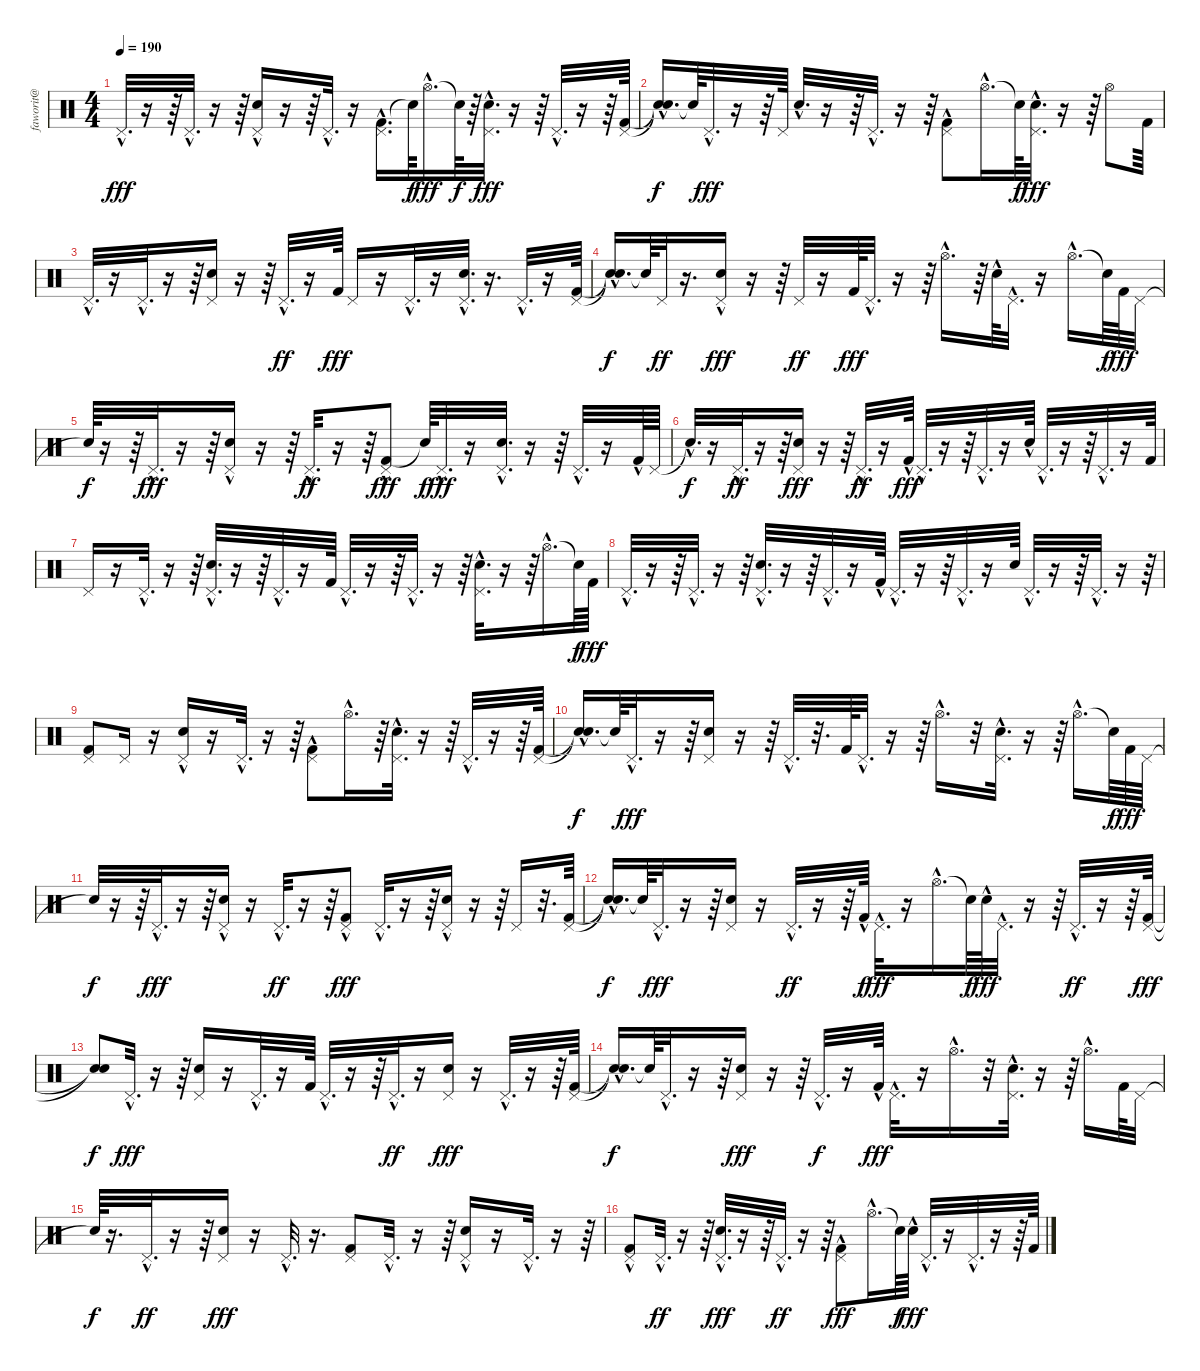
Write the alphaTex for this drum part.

\track ("faworit@" "faworit@") {instrument percussion}
\staff {score}
\articulation defaults
\ts (4 4)
\tempo 190
\clef neutral
\ks c "Pedal Hi-Hat (hit)"{hac}.32{d dy fff}
r.16 r.64 "Pedal Hi-Hat (hit)"{hac}.32{d} r.16 r.64 ("Snare (hit) 2"{hac} "Pedal Hi-Hat (hit)").16 r.16 r.64 "Pedal Hi-Hat (hit)"{hac}.32{d} r.16 ("Kick (hit) 2"{hac} "Pedal Hi-Hat (hit)"{hac}).16{d} "Snare (hit)"{t}.64{dy f} "Hi-Hat (open)"{hac}.16{d dy fff} "Snare (hit)"{t}.64{dy f} r.64 ("Pedal Hi-Hat (hit)"{hac} "Snare (hit) 2"{hac}).32{d dy fff} r.16 r.64 "Pedal Hi-Hat (hit)"{hac}.32{d} r.16 r.64 ("Pedal Hi-Hat (hit)" "Kick (hit) 2").64 |
("Snare (hit)"{t} "Snare (hit)"{hac t}).16{d dy f} "Snare (hit)"{t}.64 "Pedal Hi-Hat (hit)"{hac}.32{d dy fff} r.16 r.64 "Pedal Hi-Hat (hit)".64 "Snare (hit) 2"{hac}.32{d} r.16 r.64 "Pedal Hi-Hat (hit)"{hac}.32{d} r.16 r.64 ("Kick (hit) 2"{hac} "Pedal Hi-Hat (hit)"{hac}).8 "Hi-Hat (open)"{hac}.16{d} "Snare (hit)"{t}.64{dy f} ("Snare (hit) 2"{hac} "Pedal Hi-Hat (hit)"{hac}).32{d dy fff} r.16 r.64 "Hi-Hat (open)".8 "Kick (hit) 2".64 |
"Pedal Hi-Hat (hit)"{hac}.32{d} r.16 "Pedal Hi-Hat (hit)"{hac}.32{d} r.16 r.64 ("Pedal Hi-Hat (hit)" "Snare (hit) 2").16 r.16 r.64 "Pedal Hi-Hat (hit)"{hac}.32{d dy ff} r.16 "Kick (hit) 2".64{dy fff} "Pedal Hi-Hat (hit)".16 r.16 "Pedal Hi-Hat (hit)"{hac}.32{d} r.16 ("Snare (hit) 2"{hac} "Pedal Hi-Hat (hit)"{hac}).32{d} r.16{d} "Pedal Hi-Hat (hit)"{hac}.32{d} r.16 ("Pedal Hi-Hat (hit)" "Kick (hit) 2").64 |
("Snare (hit)"{t} "Snare (hit)"{hac t}).16{d dy f} "Snare (hit)"{t}.64 "Pedal Hi-Hat (hit)".32{dy ff} r.16{d} ("Snare (hit) 2"{hac} "Pedal Hi-Hat (hit)").16{dy fff} r.16 r.64 "Pedal Hi-Hat (hit)".32{dy ff} r.16 "Kick (hit) 2".64{dy fff} "Pedal Hi-Hat (hit)"{hac}.32{d} r.16 r.64 "Hi-Hat (open)"{hac}.16{d} r.64 "Snare (hit) 2"{hac}.64 "Pedal Hi-Hat (hit)"{hac}.32{d} r.16 "Hi-Hat (open)"{hac}.16{d} "Snare (hit)"{t}.64{dy f} "Kick (hit) 2".64{dy fff} "Pedal Hi-Hat (hit)".32 |
"Snare (hit)"{t}.64{dy f} r.16 r.64 "Pedal Hi-Hat (hit)"{hac}.32{d dy fff} r.16 r.64 ("Pedal Hi-Hat (hit)"{hac} "Snare (hit) 2").16 r.16 r.64 "Pedal Hi-Hat (hit)"{hac}.32{d dy ff} r.16 r.64 ("Kick (hit) 2" "Pedal Hi-Hat (hit)"{hac}).8{dy fff} "Snare (hit)"{t}.64{dy f} "Pedal Hi-Hat (hit)"{hac}.32{d dy fff} r.16 ("Snare (hit) 2"{hac} "Pedal Hi-Hat (hit)"{hac}).32{d} r.16 r.64 "Pedal Hi-Hat (hit)"{hac}.32{d} r.16 "Kick (hit) 2"{hac}.64 "Pedal Hi-Hat (hit)".64 |
"Snare (hit)"{hac t}.32{d dy f} r.16 "Pedal Hi-Hat (hit)"{hac}.32{d dy ff} r.16 r.64 ("Snare (hit) 2" "Pedal Hi-Hat (hit)").16{dy fff} r.16 r.64 "Pedal Hi-Hat (hit)"{hac}.32{d dy ff} r.16 "Kick (hit) 2"{hac}.64{dy fff} "Pedal Hi-Hat (hit)"{hac}.32{d} r.16 r.64 "Pedal Hi-Hat (hit)"{hac}.32{d} r.16 "Snare (hit) 2"{hac}.64 "Pedal Hi-Hat (hit)"{hac}.32{d} r.16 r.64 "Pedal Hi-Hat (hit)"{hac}.32{d} r.16 "Kick (hit) 2".64 |
"Pedal Hi-Hat (hit)".16 r.16 "Pedal Hi-Hat (hit)"{hac}.32{d} r.16 r.64 ("Snare (hit) 2"{hac} "Pedal Hi-Hat (hit)"{hac}).32{d} r.16 r.64 "Pedal Hi-Hat (hit)"{hac}.32{d} r.16 "Kick (hit) 2".64 "Pedal Hi-Hat (hit)"{hac}.32{d} r.16 r.64 "Pedal Hi-Hat (hit)"{hac}.32{d} r.16 r.64 ("Pedal Hi-Hat (hit)"{hac} "Snare (hit) 2").32{d} r.16 r.64 "Hi-Hat (open)"{hac}.16{d} "Snare (hit)"{t}.64{dy f} "Kick (hit) 2".64{dy fff} |
"Pedal Hi-Hat (hit)"{hac}.32{d} r.16 r.64 "Pedal Hi-Hat (hit)"{hac}.32{d} r.16 r.64 ("Snare (hit) 2"{hac} "Pedal Hi-Hat (hit)"{hac}).32{d} r.16 r.64 "Pedal Hi-Hat (hit)"{hac}.32{d} r.16 "Kick (hit) 2"{hac}.64 "Pedal Hi-Hat (hit)"{hac}.32{d} r.16 r.64 "Pedal Hi-Hat (hit)"{hac}.32{d} r.16 "Snare (hit) 2".64 "Pedal Hi-Hat (hit)"{hac}.32{d} r.16 r.64 "Pedal Hi-Hat (hit)"{hac}.32{d} r.16 r.64 |
("Pedal Hi-Hat (hit)" "Kick (hit) 2").8 "Pedal Hi-Hat (hit)".16 r.16 ("Snare (hit) 2" "Pedal Hi-Hat (hit)"{hac}).16 r.16 "Pedal Hi-Hat (hit)"{hac}.32{d} r.16 r.64 ("Pedal Hi-Hat (hit)"{hac} "Kick (hit) 2"{hac}).8 "Hi-Hat (open)"{hac}.16{d} r.64 ("Pedal Hi-Hat (hit)"{hac} "Snare (hit) 2"{hac}).32{d} r.16 r.64 "Pedal Hi-Hat (hit)"{hac}.32{d} r.16 r.64 ("Kick (hit) 2" "Pedal Hi-Hat (hit)").64 |
("Snare (hit)"{hac t} "Snare (hit)"{t}).16{d dy f} "Snare (hit)"{t}.64 "Pedal Hi-Hat (hit)"{hac}.32{d dy fff} r.16 r.64 ("Snare (hit) 2" "Pedal Hi-Hat (hit)").16 r.16 r.64 "Pedal Hi-Hat (hit)"{hac}.32{d} r.32{d} "Kick (hit) 2".64 "Pedal Hi-Hat (hit)"{hac}.32{d} r.16 r.64 "Hi-Hat (open)"{hac}.16{d} r.32 ("Pedal Hi-Hat (hit)"{hac} "Snare (hit) 2"{hac}).32{d} r.16 r.64 "Hi-Hat (open)"{hac}.16{d} "Snare (hit)"{t}.64{dy f} "Kick (hit) 2".64{dy fff} "Pedal Hi-Hat (hit)".64 |
"Snare (hit)"{t}.32{dy f} r.16 r.64 "Pedal Hi-Hat (hit)"{hac}.32{d dy fff} r.16 r.64 ("Snare (hit) 2" "Pedal Hi-Hat (hit)"{hac}).16 r.16 "Pedal Hi-Hat (hit)"{hac}.32{d dy ff} r.16 r.64 ("Kick (hit) 2" "Pedal Hi-Hat (hit)"{hac}).8{dy fff} "Pedal Hi-Hat (hit)"{hac}.32{d} r.16 r.64 ("Pedal Hi-Hat (hit)" "Snare (hit) 2"{hac}).16 r.16 r.64 "Pedal Hi-Hat (hit)".16 r.32{d} ("Kick (hit) 2" "Pedal Hi-Hat (hit)").64 |
("Snare (hit)"{hac t} "Snare (hit)"{hac t}).16{d dy f} "Snare (hit)"{t}.64 "Pedal Hi-Hat (hit)"{hac}.32{d dy fff} r.16 r.64 ("Snare (hit) 2" "Pedal Hi-Hat (hit)").16 r.16 "Pedal Hi-Hat (hit)"{hac}.32{d dy ff} r.16 r.64 "Kick (hit) 2"{hac}.64{dy f} "Pedal Hi-Hat (hit)"{hac}.32{d dy fff} r.16 "Hi-Hat (open)"{hac}.16{d} "Snare (hit)"{t}.64{dy f} "Snare (hit) 2"{hac}.64{dy fff} "Pedal Hi-Hat (hit)"{hac}.32{d} r.16 r.64 "Pedal Hi-Hat (hit)"{hac}.32{d dy ff} r.16 r.64 ("Kick (hit) 2" "Pedal Hi-Hat (hit)").64{dy fff} |
("Snare (hit)"{t} "Snare (hit)"{t}).8{dy f} "Pedal Hi-Hat (hit)"{hac}.32{d dy fff} r.16 r.64 ("Pedal Hi-Hat (hit)" "Snare (hit) 2").16 r.16 "Pedal Hi-Hat (hit)"{hac}.32{d} r.16 "Kick (hit) 2".64 "Pedal Hi-Hat (hit)"{hac}.32{d} r.16 r.64 "Pedal Hi-Hat (hit)"{hac}.32{d dy ff} r.16 ("Snare (hit) 2" "Pedal Hi-Hat (hit)").16{dy fff} r.16 "Pedal Hi-Hat (hit)"{hac}.32{d} r.16 r.64 ("Pedal Hi-Hat (hit)" "Kick (hit) 2").64 |
("Snare (hit)"{t} "Snare (hit)"{hac t}).16{d dy f} "Snare (hit)"{t}.64 "Pedal Hi-Hat (hit)"{hac}.32{d} r.16 r.64 ("Snare (hit) 2" "Pedal Hi-Hat (hit)").16{dy fff} r.16 r.64 "Pedal Hi-Hat (hit)"{hac}.32{d dy f} r.16 "Kick (hit) 2"{hac}.64{dy fff} "Pedal Hi-Hat (hit)"{hac}.32{d} r.16 "Hi-Hat (open)"{hac}.16{d} r.32 ("Pedal Hi-Hat (hit)"{hac} "Snare (hit) 2"{hac}).32{d} r.16 r.64 "Hi-Hat (open)"{hac}.16{d} "Kick (hit) 2".64 "Pedal Hi-Hat (hit)".32 |
"Snare (hit)"{t}.64{dy f} r.16{d} "Pedal Hi-Hat (hit)"{hac}.32{d dy ff} r.16 r.64 ("Pedal Hi-Hat (hit)" "Snare (hit) 2").16{dy fff} r.16 "Pedal Hi-Hat (hit)"{hac}.32{d} r.16{d} ("Kick (hit) 2" "Pedal Hi-Hat (hit)").8 "Pedal Hi-Hat (hit)"{hac}.32{d} r.16 r.64 ("Snare (hit) 2" "Pedal Hi-Hat (hit)"{hac}).16 r.16 "Pedal Hi-Hat (hit)"{hac}.32{d} r.16 r.64 |
("Kick (hit) 2" "Pedal Hi-Hat (hit)"{hac}).8 "Pedal Hi-Hat (hit)"{hac}.32{d dy ff} r.16 r.64 ("Snare (hit) 2"{hac} "Pedal Hi-Hat (hit)"{hac}).32{d dy fff} r.16 r.64 "Pedal Hi-Hat (hit)"{hac}.32{d dy ff} r.16 r.64 ("Pedal Hi-Hat (hit)"{hac} "Kick (hit) 2"{hac}).8{dy fff} "Hi-Hat (open)"{hac}.16{d} "Snare (hit)"{t}.64{dy f} "Snare (hit) 2"{hac}.64{dy fff} "Pedal Hi-Hat (hit)"{hac}.32{d} r.16 "Pedal Hi-Hat (hit)"{hac}.32{d} r.16 r.64 "Kick (hit) 2".64
